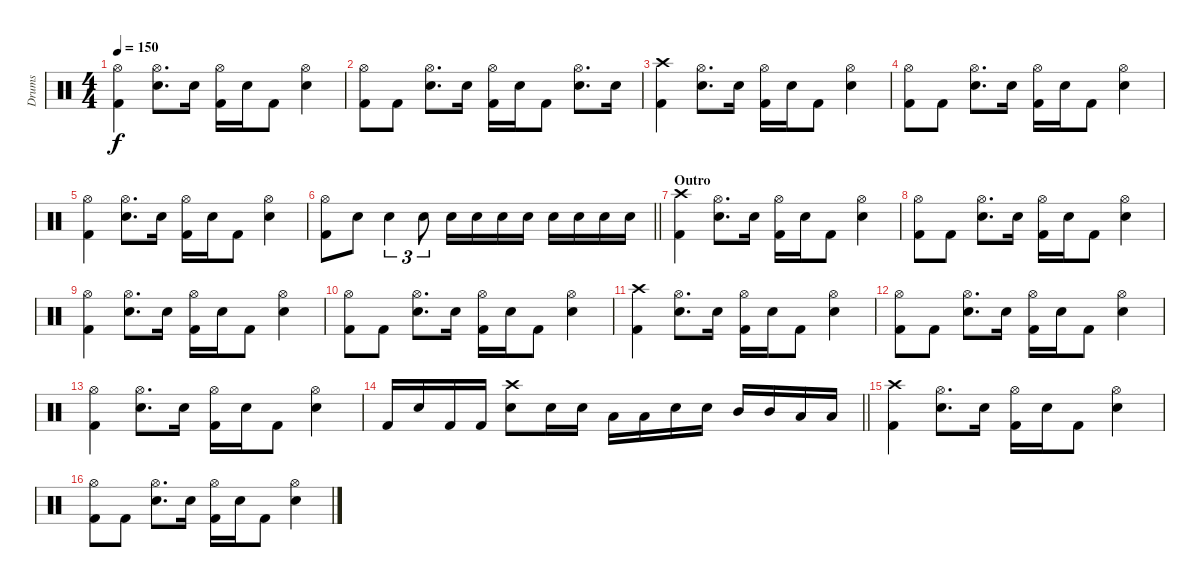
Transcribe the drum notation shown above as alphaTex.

\track ("Drums" "Drums") {instrument percussion}
\staff {score}
\articulation defaults
\ts (4 4)
\tempo 150
\clef neutral
\ks c
("Hi-Hat (open)" "Kick (hit) 2").4{dy f} ("Hi-Hat (open)" "Snare (hit) 2").8{d} "Snare (hit) 2".16 ("Hi-Hat (open)" "Kick (hit) 2").16 "Snare (hit) 2".16 "Kick (hit) 2".8 ("Hi-Hat (open)" "Snare (hit) 2").4 |
("Hi-Hat (open)" "Kick (hit) 2").8 "Kick (hit) 2".8 ("Hi-Hat (open)" "Snare (hit) 2").8{d} "Snare (hit) 2".16 ("Hi-Hat (open)" "Kick (hit) 2").16 "Snare (hit) 2".16 "Kick (hit) 2".8 ("Hi-Hat (open)" "Snare (hit) 2").8{d} "Snare (hit) 2".16 |
("Crash high (hit)" "Kick (hit) 2").4 ("Hi-Hat (open)" "Snare (hit) 2").8{d} "Snare (hit) 2".16 ("Hi-Hat (open)" "Kick (hit) 2").16 "Snare (hit) 2".16 "Kick (hit) 2".8 ("Hi-Hat (open)" "Snare (hit) 2").4 |
("Hi-Hat (open)" "Kick (hit) 2").8 "Kick (hit) 2".8 ("Hi-Hat (open)" "Snare (hit) 2").8{d} "Snare (hit) 2".16 ("Hi-Hat (open)" "Kick (hit) 2").16 "Snare (hit) 2".16 "Kick (hit) 2".8 ("Hi-Hat (open)" "Snare (hit) 2").4 |
("Hi-Hat (open)" "Kick (hit) 2").4 ("Hi-Hat (open)" "Snare (hit) 2").8{d} "Snare (hit) 2".16 ("Hi-Hat (open)" "Kick (hit) 2").16 "Snare (hit) 2".16 "Kick (hit) 2".8 ("Hi-Hat (open)" "Snare (hit) 2").4 |
\barLineRight lightlight
("Hi-Hat (open)" "Kick (hit) 2").8 "Snare (hit) 2".8 "Snare (hit) 2".4{tu (3 2)} "Snare (hit) 2".8{tu (3 2)} "Snare (hit) 2".16 "Snare (hit) 2".16 "Snare (hit) 2".16 "Snare (hit) 2".16 "Snare (hit) 2".16 "Snare (hit) 2".16 "Snare (hit) 2".16 "Snare (hit) 2".16 |
\section ("" "Outro")
("Crash high (hit)" "Kick (hit) 2").4 ("Hi-Hat (open)" "Snare (hit) 2").8{d} "Snare (hit) 2".16 ("Hi-Hat (open)" "Kick (hit) 2").16 "Snare (hit) 2".16 "Kick (hit) 2".8 ("Hi-Hat (open)" "Snare (hit) 2").4 |
("Hi-Hat (open)" "Kick (hit) 2").8 "Kick (hit) 2".8 ("Hi-Hat (open)" "Snare (hit) 2").8{d} "Snare (hit) 2".16 ("Hi-Hat (open)" "Kick (hit) 2").16 "Snare (hit) 2".16 "Kick (hit) 2".8 ("Hi-Hat (open)" "Snare (hit) 2").4 |
("Hi-Hat (open)" "Kick (hit) 2").4 ("Hi-Hat (open)" "Snare (hit) 2").8{d} "Snare (hit) 2".16 ("Hi-Hat (open)" "Kick (hit) 2").16 "Snare (hit) 2".16 "Kick (hit) 2".8 ("Hi-Hat (open)" "Snare (hit) 2").4 |
("Hi-Hat (open)" "Kick (hit) 2").8 "Kick (hit) 2".8 ("Hi-Hat (open)" "Snare (hit) 2").8{d} "Snare (hit) 2".16 ("Hi-Hat (open)" "Kick (hit) 2").16 "Snare (hit) 2".16 "Kick (hit) 2".8 ("Hi-Hat (open)" "Snare (hit) 2").4 |
("Crash high (hit)" "Kick (hit) 2").4 ("Hi-Hat (open)" "Snare (hit) 2").8{d} "Snare (hit) 2".16 ("Hi-Hat (open)" "Kick (hit) 2").16 "Snare (hit) 2".16 "Kick (hit) 2".8 ("Hi-Hat (open)" "Snare (hit) 2").4 |
("Hi-Hat (open)" "Kick (hit) 2").8 "Kick (hit) 2".8 ("Hi-Hat (open)" "Snare (hit) 2").8{d} "Snare (hit) 2".16 ("Hi-Hat (open)" "Kick (hit) 2").16 "Snare (hit) 2".16 "Kick (hit) 2".8 ("Hi-Hat (open)" "Snare (hit) 2").4 |
("Hi-Hat (open)" "Kick (hit) 2").4 ("Hi-Hat (open)" "Snare (hit) 2").8{d} "Snare (hit) 2".16 ("Hi-Hat (open)" "Kick (hit) 2").16 "Snare (hit) 2".16 "Kick (hit) 2".8 ("Hi-Hat (open)" "Snare (hit) 2").4 |
\barLineRight lightlight "Kick (hit) 2".16 "Snare (hit) 2".16 "Kick (hit) 2".16 "Kick (hit) 2".16
("Crash high (hit)" "Snare (hit) 2").8 "Snare (hit) 2".16 "Snare (hit) 2".16 "Low Tom (hit)".16 "Low Tom (hit)".16 "Snare (hit) 2".16 "Snare (hit) 2".16 "Mid Tom (hit)".16 "Mid Tom (hit)".16 "Low Tom (hit)".16 "Low Tom (hit)".16 |
("Crash high (hit)" "Kick (hit) 2").4 ("Hi-Hat (open)" "Snare (hit) 2").8{d} "Snare (hit) 2".16 ("Hi-Hat (open)" "Kick (hit) 2").16 "Snare (hit) 2".16 "Kick (hit) 2".8 ("Hi-Hat (open)" "Snare (hit) 2").4 |
("Hi-Hat (open)" "Kick (hit) 2").8 "Kick (hit) 2".8 ("Hi-Hat (open)" "Snare (hit) 2").8{d} "Snare (hit) 2".16 ("Hi-Hat (open)" "Kick (hit) 2").16 "Snare (hit) 2".16 "Kick (hit) 2".8 ("Hi-Hat (open)" "Snare (hit) 2").4
